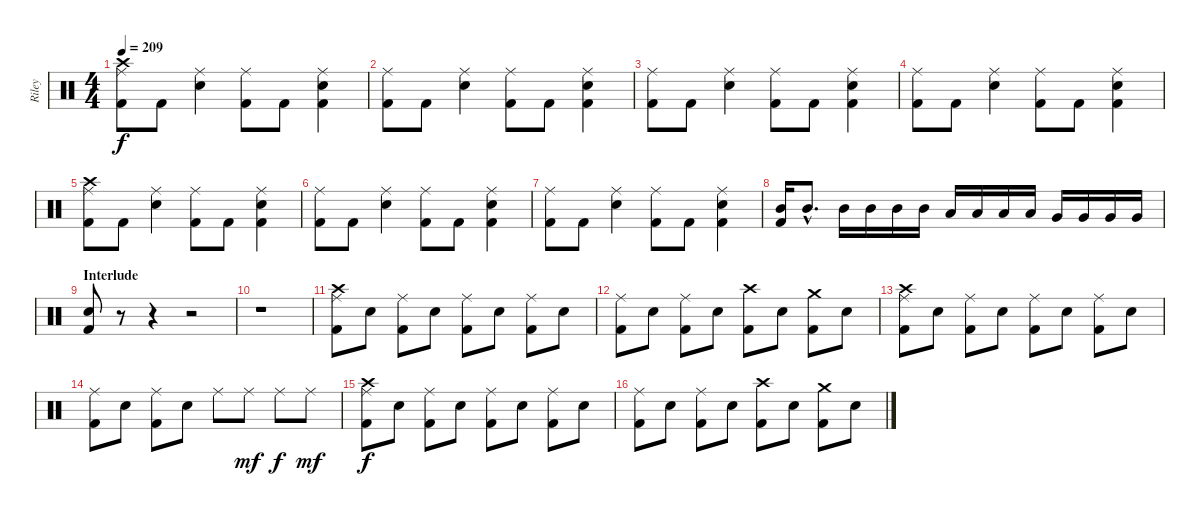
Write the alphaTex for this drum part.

\track ("Riley" "Riley") {instrument percussion}
\staff {score}
\articulation defaults
\ts (4 4)
\tempo 209
\clef neutral
\ks c
("Crash high (hit)" "Ride (middle)" "Kick (hit) 2").8{dy f} "Kick (hit) 2".8 ("Ride (middle)" "Electric Snare (hit)").4 ("Ride (middle)" "Kick (hit) 2").8 "Kick (hit) 2".8 ("Ride (middle)" "Electric Snare (hit)" "Kick (hit) 2").4 |
("Ride (middle)" "Kick (hit) 2").8 "Kick (hit) 2".8 ("Ride (middle)" "Electric Snare (hit)").4 ("Ride (middle)" "Kick (hit) 2").8 "Kick (hit) 2".8 ("Ride (middle)" "Electric Snare (hit)" "Kick (hit) 2").4 |
("Ride (middle)" "Kick (hit) 2").8 "Kick (hit) 2".8 ("Ride (middle)" "Electric Snare (hit)").4 ("Ride (middle)" "Kick (hit) 2").8 "Kick (hit) 2".8 ("Ride (middle)" "Electric Snare (hit)" "Kick (hit) 2").4 |
("Ride (middle)" "Kick (hit) 2").8 "Kick (hit) 2".8 ("Ride (middle)" "Electric Snare (hit)").4 ("Ride (middle)" "Kick (hit) 2").8 "Kick (hit) 2".8 ("Ride (middle)" "Electric Snare (hit)" "Kick (hit) 2").4 |
("Crash high (hit)" "Ride (middle)" "Kick (hit) 2").8 "Kick (hit) 2".8 ("Ride (middle)" "Electric Snare (hit)").4 ("Ride (middle)" "Kick (hit) 2").8 "Kick (hit) 2".8 ("Ride (middle)" "Electric Snare (hit)" "Kick (hit) 2").4 |
("Ride (middle)" "Kick (hit) 2").8 "Kick (hit) 2".8 ("Ride (middle)" "Electric Snare (hit)").4 ("Ride (middle)" "Kick (hit) 2").8 "Kick (hit) 2".8 ("Ride (middle)" "Electric Snare (hit)" "Kick (hit) 2").4 |
("Ride (middle)" "Kick (hit) 2").8 "Kick (hit) 2".8 ("Ride (middle)" "Electric Snare (hit)").4 ("Ride (middle)" "Kick (hit) 2").8 "Kick (hit) 2".8 ("Ride (middle)" "Electric Snare (hit)" "Kick (hit) 2").4 |
("Mid Tom (hit)" "Kick (hit) 2").16 "Mid Tom (hit)"{hac}.8{d} "Mid Tom (hit)".16 "Mid Tom (hit)".16 "Mid Tom (hit)".16 "Mid Tom (hit)".16 "Low Tom (hit)".16 "Low Tom (hit)".16 "Low Tom (hit)".16 "Low Tom (hit)".16 "Very Low Tom (hit)".16 "Very Low Tom (hit)".16 "Very Low Tom (hit)".16 "Very Low Tom (hit)".16 |
\section ("" "Interlude")
("Electric Snare (hit)" "Kick (hit) 2").8 r.8 r.4 r.2 |
r.1 |
("Crash high (hit)" "Ride (middle)" "Kick (hit) 2").8 "Electric Snare (hit)".8 ("Ride (middle)" "Kick (hit) 2").8 "Electric Snare (hit)".8 ("Ride (middle)" "Kick (hit) 2").8 "Electric Snare (hit)".8 ("Ride (middle)" "Kick (hit) 2").8 "Electric Snare (hit)".8 |
("Ride (middle)" "Kick (hit) 2").8 "Electric Snare (hit)".8 ("Ride (middle)" "Kick (hit) 2").8 "Electric Snare (hit)".8 ("Crash high (hit)" "Kick (hit) 2").8 "Electric Snare (hit)".8 ("Crash medium (hit)" "Kick (hit) 2").8 "Electric Snare (hit)".8 |
("Crash high (hit)" "Ride (middle)" "Kick (hit) 2").8 "Electric Snare (hit)".8 ("Ride (middle)" "Kick (hit) 2").8 "Electric Snare (hit)".8 ("Ride (middle)" "Kick (hit) 2").8 "Electric Snare (hit)".8 ("Ride (middle)" "Kick (hit) 2").8 "Electric Snare (hit)".8 |
("Ride (middle)" "Kick (hit) 2").8 "Electric Snare (hit)".8 ("Ride (middle)" "Kick (hit) 2").8 "Electric Snare (hit)".8 "Ride (middle)".8 "Ride (middle)".8{dy mf} "Ride (middle)".8{dy f} "Ride (middle)".8{dy mf} |
("Crash high (hit)" "Ride (middle)" "Kick (hit) 2").8{dy f} "Electric Snare (hit)".8 ("Ride (middle)" "Kick (hit) 2").8 "Electric Snare (hit)".8 ("Ride (middle)" "Kick (hit) 2").8 "Electric Snare (hit)".8 ("Ride (middle)" "Kick (hit) 2").8 "Electric Snare (hit)".8 |
("Ride (middle)" "Kick (hit) 2").8 "Electric Snare (hit)".8 ("Ride (middle)" "Kick (hit) 2").8 "Electric Snare (hit)".8 ("Crash high (hit)" "Kick (hit) 2").8 "Electric Snare (hit)".8 ("Crash medium (hit)" "Kick (hit) 2").8 "Electric Snare (hit)".8
